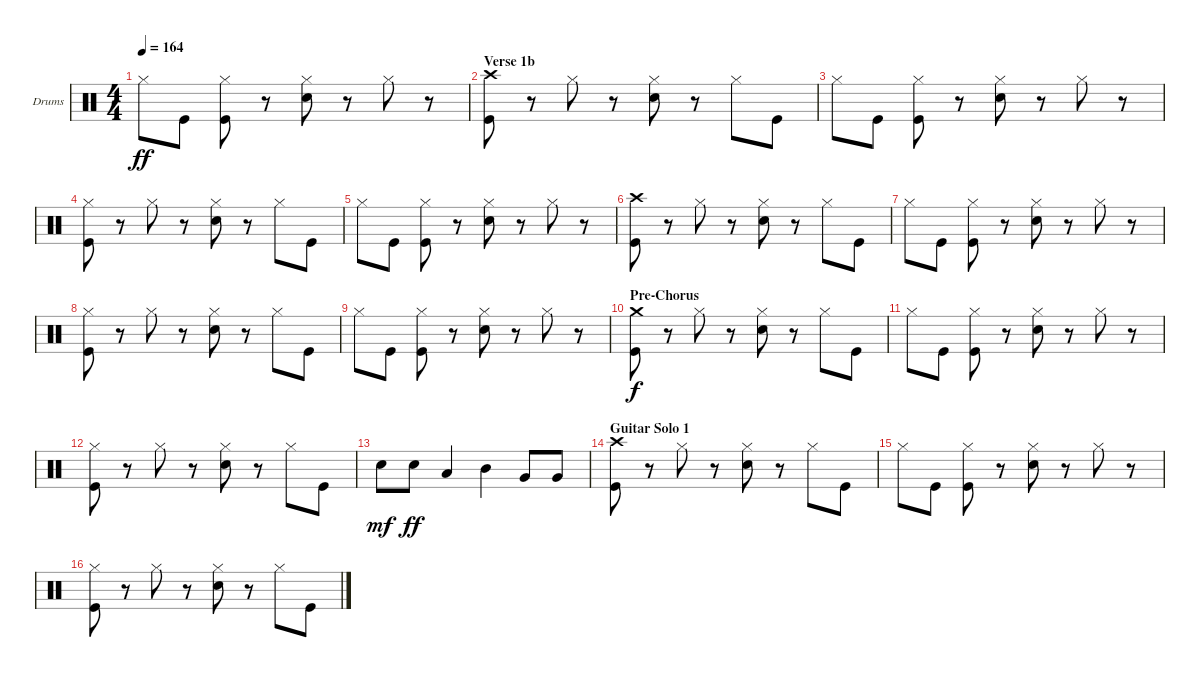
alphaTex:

\defaultSystemsLayout 4
\bracketExtendMode groupsimilarinstruments
\firstSystemTrackNameOrientation horizontal
\otherSystemsTrackNameOrientation horizontal
\track ("Drumkit" "Drums") {instrument percussion}
\staff {score}
\articulation defaults
\ts (4 4)
\tempo 164
\clef neutral
\ks c "Hi-Hat (closed)".8{dy ff} "Kick (hit)".8
("Hi-Hat (closed)" "Kick (hit)").8 r.8 ("Hi-Hat (closed)" "Snare (hit) 2").8 r.8 "Hi-Hat (closed)".8 r.8 |
\section ("" "Verse 1b")
("Kick (hit)" "Crash high (hit)").8 r.8 "Hi-Hat (closed)".8 r.8 ("Hi-Hat (closed)" "Snare (hit) 2").8 r.8 "Hi-Hat (closed)".8 "Kick (hit)".8 |
"Hi-Hat (closed)".8 "Kick (hit)".8 ("Hi-Hat (closed)" "Kick (hit)").8 r.8 ("Hi-Hat (closed)" "Snare (hit) 2").8 r.8 "Hi-Hat (closed)".8 r.8 |
("Kick (hit)" "Hi-Hat (closed)").8 r.8 "Hi-Hat (closed)".8 r.8 ("Hi-Hat (closed)" "Snare (hit) 2").8 r.8 "Hi-Hat (closed)".8 "Kick (hit)".8 |
"Hi-Hat (closed)".8 "Kick (hit)".8 ("Hi-Hat (closed)" "Kick (hit)").8 r.8 ("Hi-Hat (closed)" "Snare (hit) 2").8 r.8 "Hi-Hat (closed)".8 r.8 |
("Kick (hit)" "Crash high (hit)").8 r.8 "Hi-Hat (closed)".8 r.8 ("Hi-Hat (closed)" "Snare (hit) 2").8 r.8 "Hi-Hat (closed)".8 "Kick (hit)".8 |
"Hi-Hat (closed)".8 "Kick (hit)".8 ("Hi-Hat (closed)" "Kick (hit)").8 r.8 ("Hi-Hat (closed)" "Snare (hit) 2").8 r.8 "Hi-Hat (closed)".8 r.8 |
("Kick (hit)" "Hi-Hat (closed)").8 r.8 "Hi-Hat (closed)".8 r.8 ("Hi-Hat (closed)" "Snare (hit) 2").8 r.8 "Hi-Hat (closed)".8 "Kick (hit)".8 |
"Hi-Hat (closed)".8 "Kick (hit)".8 ("Hi-Hat (closed)" "Kick (hit)").8 r.8 ("Hi-Hat (closed)" "Snare (hit) 2").8 r.8 "Hi-Hat (closed)".8 r.8 |
\section ("" "Pre-Chorus")
("Kick (hit)" "Crash medium (hit)").8{dy f} r.8 "Hi-Hat (closed)".8 r.8 ("Hi-Hat (closed)" "Snare (hit) 2").8 r.8 "Hi-Hat (closed)".8 "Kick (hit)".8 |
"Hi-Hat (closed)".8 "Kick (hit)".8 ("Hi-Hat (closed)" "Kick (hit)").8 r.8 ("Snare (hit) 2" "Hi-Hat (closed)").8 r.8 "Hi-Hat (closed)".8 r.8 |
("Kick (hit)" "Hi-Hat (closed)").8 r.8 "Hi-Hat (closed)".8 r.8 ("Hi-Hat (closed)" "Snare (hit) 2").8 r.8 "Hi-Hat (closed)".8 "Kick (hit)".8 |
"Snare (hit) 2".8{dy mf} "Snare (hit) 2".8{dy ff} "Low Tom (hit)".4 "Mid Tom (hit)".4 "Very Low Tom (hit)".8 "Very Low Tom (hit)".8 |
\section ("" "Guitar Solo 1")
("Kick (hit)" "Crash high (hit)").8 r.8 "Hi-Hat (closed)".8 r.8 ("Hi-Hat (closed)" "Snare (hit) 2").8 r.8 "Hi-Hat (closed)".8 "Kick (hit)".8 |
"Hi-Hat (closed)".8 "Kick (hit)".8 ("Hi-Hat (closed)" "Kick (hit)").8 r.8 ("Hi-Hat (closed)" "Snare (hit) 2").8 r.8 "Hi-Hat (closed)".8 r.8 |
("Kick (hit)" "Hi-Hat (closed)").8 r.8 "Hi-Hat (closed)".8 r.8 ("Hi-Hat (closed)" "Snare (hit) 2").8 r.8 "Hi-Hat (closed)".8 "Kick (hit)".8
